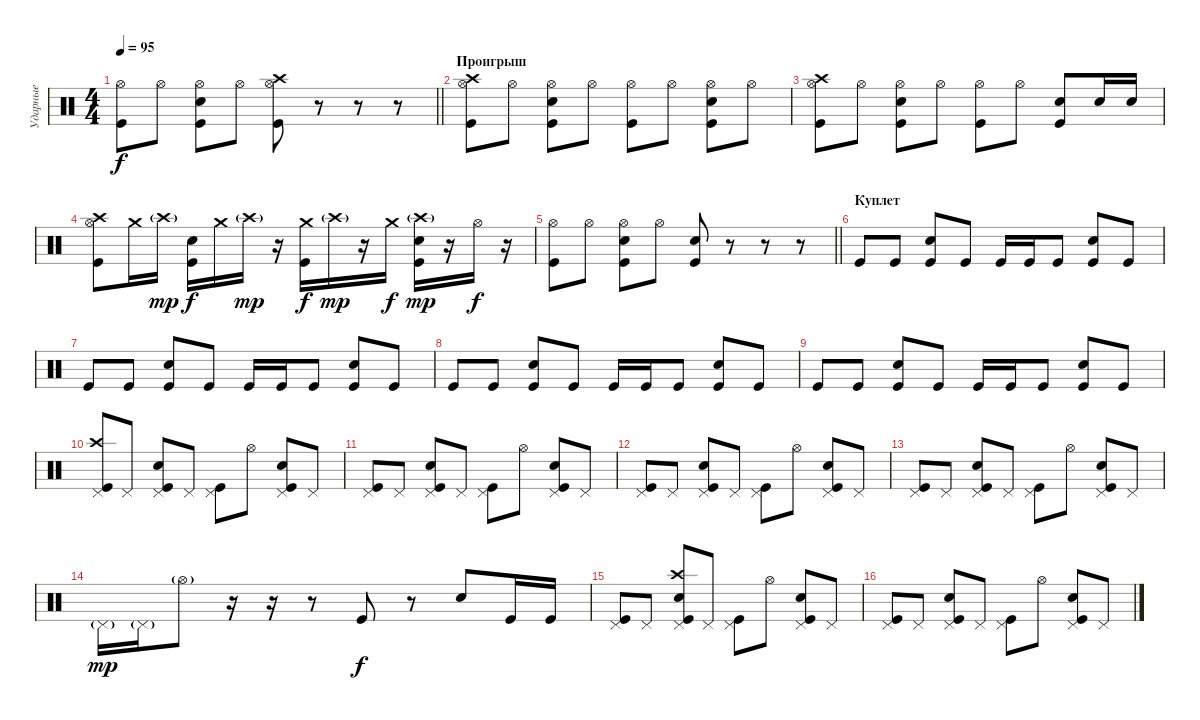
\track ("Ударные" "Ударные") {instrument percussion}
\staff {score}
\articulation defaults
\ts (4 4)
\tempo 95
\clef neutral
\barLineRight lightlight
\ks c
("Hi-Hat (open)" "Kick (hit)").8{dy f} "Hi-Hat (open)".8 ("Electric Snare (hit)" "Hi-Hat (open)" "Kick (hit)").8 "Hi-Hat (open)".8 ("Crash high (hit)" "Hi-Hat (open)" "Kick (hit)").8 r.8 r.8 r.8 |
\section ("" "Проигрыш ")
("Crash high (hit)" "Hi-Hat (open)" "Kick (hit)").8 "Hi-Hat (open)".8 ("Electric Snare (hit)" "Hi-Hat (open)" "Kick (hit)").8 "Hi-Hat (open)".8 ("Hi-Hat (open)" "Kick (hit)").8 "Hi-Hat (open)".8 ("Electric Snare (hit)" "Hi-Hat (open)" "Kick (hit)").8 "Hi-Hat (open)".8 |
("Crash high (hit)" "Hi-Hat (open)" "Kick (hit)").8 "Hi-Hat (open)".8 ("Electric Snare (hit)" "Hi-Hat (open)" "Kick (hit)").8 "Hi-Hat (open)".8 ("Hi-Hat (open)" "Kick (hit)").8 "Hi-Hat (open)".8 ("Electric Snare (hit)" "Kick (hit)").8 "Electric Snare (hit)".16 "Electric Snare (hit)".16 |
("Crash high (hit)" "Hi-Hat (open)" "Kick (hit)").8 "Crash medium (hit)".16 "Crash high (hit)"{g}.16{dy mp} ("Kick (hit)" "Electric Snare (hit)").16{dy f} "Crash medium (hit)".16 "Crash high (hit)"{g}.16{dy mp} r.16 ("Kick (hit)" "Crash medium (hit)").16{dy f} "Crash high (hit)"{g}.16{dy mp} r.16 "Crash medium (hit)".16{dy f} ("Kick (hit)" "Electric Snare (hit)" "Crash high (hit)"{g}).16{dy mp} r.16 "Hi-Hat (open)".16{dy f} r.16 |
\barLineRight lightlight
("Hi-Hat (open)" "Kick (hit)").8 "Hi-Hat (open)".8 ("Electric Snare (hit)" "Hi-Hat (open)" "Kick (hit)").8 "Hi-Hat (open)".8 ("Electric Snare (hit)" "Kick (hit)").8 r.8 r.8 r.8 |
\section ("" "Куплет")
"Kick (hit)".8 "Kick (hit)".8 ("Kick (hit)" "Electric Snare (hit)").8 "Kick (hit)".8 "Kick (hit)".16 "Kick (hit)".16 "Kick (hit)".8 ("Kick (hit)" "Electric Snare (hit)").8 "Kick (hit)".8 |
"Kick (hit)".8 "Kick (hit)".8 ("Kick (hit)" "Electric Snare (hit)").8 "Kick (hit)".8 "Kick (hit)".16 "Kick (hit)".16 "Kick (hit)".8 ("Kick (hit)" "Electric Snare (hit)").8 "Kick (hit)".8 |
"Kick (hit)".8 "Kick (hit)".8 ("Kick (hit)" "Electric Snare (hit)").8 "Kick (hit)".8 "Kick (hit)".16 "Kick (hit)".16 "Kick (hit)".8 ("Kick (hit)" "Electric Snare (hit)").8 "Kick (hit)".8 |
"Kick (hit)".8 "Kick (hit)".8 ("Kick (hit)" "Electric Snare (hit)").8 "Kick (hit)".8 "Kick (hit)".16 "Kick (hit)".16 "Kick (hit)".8 ("Kick (hit)" "Electric Snare (hit)").8 "Kick (hit)".8 |
("Crash high (hit)" "Pedal Hi-Hat (hit)" "Kick (hit)").8 "Pedal Hi-Hat (hit)".8 ("Electric Snare (hit)" "Pedal Hi-Hat (hit)" "Kick (hit)").8 "Pedal Hi-Hat (hit)".8 ("Pedal Hi-Hat (hit)" "Kick (hit)").8 "Hi-Hat (open)".8 ("Electric Snare (hit)" "Pedal Hi-Hat (hit)" "Kick (hit)").8 "Pedal Hi-Hat (hit)".8 |
("Pedal Hi-Hat (hit)" "Kick (hit)").8 "Pedal Hi-Hat (hit)".8 ("Electric Snare (hit)" "Pedal Hi-Hat (hit)" "Kick (hit)").8 "Pedal Hi-Hat (hit)".8 ("Pedal Hi-Hat (hit)" "Kick (hit)").8 "Hi-Hat (open)".8 ("Electric Snare (hit)" "Pedal Hi-Hat (hit)" "Kick (hit)").8 "Pedal Hi-Hat (hit)".8 |
("Pedal Hi-Hat (hit)" "Kick (hit)").8 "Pedal Hi-Hat (hit)".8 ("Electric Snare (hit)" "Pedal Hi-Hat (hit)" "Kick (hit)").8 "Pedal Hi-Hat (hit)".8 ("Pedal Hi-Hat (hit)" "Kick (hit)").8 "Hi-Hat (open)".8 ("Electric Snare (hit)" "Pedal Hi-Hat (hit)" "Kick (hit)").8 "Pedal Hi-Hat (hit)".8 |
("Pedal Hi-Hat (hit)" "Kick (hit)").8 "Pedal Hi-Hat (hit)".8 ("Electric Snare (hit)" "Pedal Hi-Hat (hit)" "Kick (hit)").8 "Pedal Hi-Hat (hit)".8 ("Pedal Hi-Hat (hit)" "Kick (hit)").8 "Hi-Hat (open)".8 ("Electric Snare (hit)" "Pedal Hi-Hat (hit)" "Kick (hit)").8 "Pedal Hi-Hat (hit)".8 |
"Pedal Hi-Hat (hit)"{g}.16{dy mp} "Pedal Hi-Hat (hit)"{g}.16 "Hi-Hat (open)"{g}.8 r.16 r.16 r.8 "Kick (hit)".8{dy f} r.8 "Electric Snare (hit)".8 "Kick (hit)".16 "Kick (hit)".16 |
("Pedal Hi-Hat (hit)" "Kick (hit)").8 "Pedal Hi-Hat (hit)".8 ("Electric Snare (hit)" "Crash high (hit)" "Pedal Hi-Hat (hit)" "Kick (hit)").8 "Pedal Hi-Hat (hit)".8 ("Pedal Hi-Hat (hit)" "Kick (hit)").8 "Hi-Hat (open)".8 ("Electric Snare (hit)" "Pedal Hi-Hat (hit)" "Kick (hit)").8 "Pedal Hi-Hat (hit)".8 |
("Pedal Hi-Hat (hit)" "Kick (hit)").8 "Pedal Hi-Hat (hit)".8 ("Electric Snare (hit)" "Pedal Hi-Hat (hit)" "Kick (hit)").8 "Pedal Hi-Hat (hit)".8 ("Pedal Hi-Hat (hit)" "Kick (hit)").8 "Hi-Hat (open)".8 ("Electric Snare (hit)" "Pedal Hi-Hat (hit)" "Kick (hit)").8 "Pedal Hi-Hat (hit)".8
